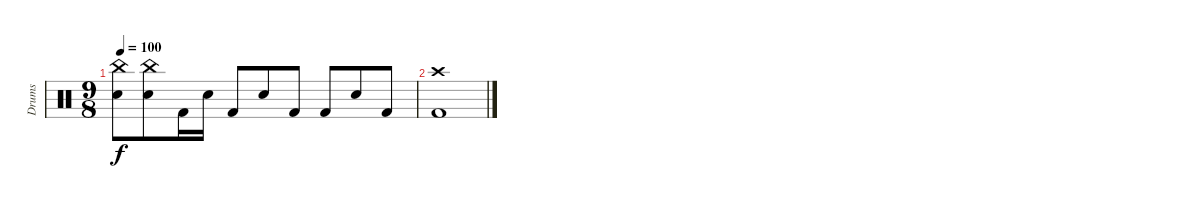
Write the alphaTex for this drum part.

\track ("Drums" "Drums") {instrument percussion}
\staff {score}
\articulation defaults
\ts (9 8)
\tempo 100
\clef neutral
\ks c
("China (hit)" "Snare (hit) 2").8{dy f} ("China (hit)" "Snare (hit) 2").8 "Kick (hit) 2".16 "Snare (hit) 2".16 "Kick (hit) 2".8 "Snare (hit) 2".8 "Kick (hit) 2".8 "Kick (hit) 2".8 "Snare (hit) 2".8 "Kick (hit) 2".8 |
("Crash high (hit)" "Kick (hit) 2").1
